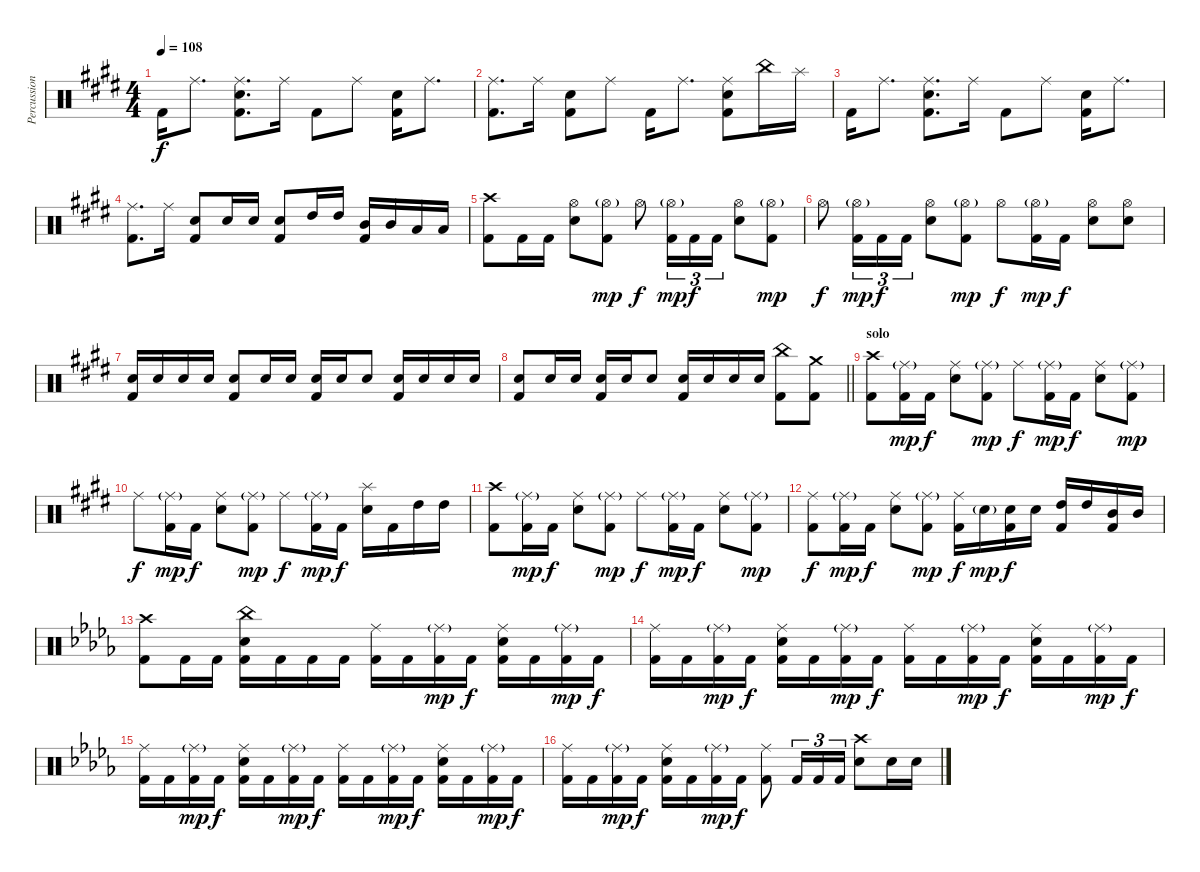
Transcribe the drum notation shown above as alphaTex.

\track ("Percussion" "Percussion") {instrument percussion}
\staff {score}
\articulation defaults
\ts (4 4)
\tempo 108
\clef neutral
\ks e "Kick (hit) 2".16{dy f} "Ride (middle)".8{d}
("Ride (middle)" "Electric Snare (hit)" "Kick (hit) 2").8{d} "Ride (middle)".16 "Kick (hit) 2".8 "Ride (middle)".8 ("Electric Snare (hit)" "Kick (hit) 2").16 "Ride (middle)".8{d} |
("Ride (middle)" "Kick (hit) 2").8{d} "Ride (middle)".16 ("Electric Snare (hit)" "Kick (hit) 2").8 "Ride (middle)".8 "Kick (hit) 2".16 "Ride (middle)".8{d} ("Ride (middle)" "Electric Snare (hit)" "Kick (hit) 2").8 "China (hit)".16 "Splash (hit)".16 |
"Kick (hit) 2".16 "Ride (middle)".8{d} ("Ride (middle)" "Electric Snare (hit)" "Kick (hit) 2").8{d} "Ride (middle)".16 "Kick (hit) 2".8 "Ride (middle)".8 ("Electric Snare (hit)" "Kick (hit) 2").16 "Ride (middle)".8{d} |
("Ride (middle)" "Kick (hit) 2").8{d} "Ride (middle)".16 ("Electric Snare (hit)" "Kick (hit) 2").8 "Electric Snare (hit)".16 "Electric Snare (hit)".16 ("Electric Snare (hit)" "Kick (hit) 2").8 "High Tom (hit)".16 "High Tom (hit)".16 ("Mid Tom (hit)" "Kick (hit) 2").16 "Mid Tom (hit)".16 "Low Tom (hit)".16 "Low Tom (hit)".16 |
("Crash high (hit)" "Kick (hit) 2").8 "Kick (hit) 2".16 "Kick (hit) 2".16 ("Hi-Hat (open)" "Electric Snare (hit)").8 ("Hi-Hat (open)"{g} "Kick (hit) 2").8{dy mp} "Hi-Hat (open)".8{dy f} ("Hi-Hat (open)"{g} "Kick (hit) 2").16{tu (3 2) dy mp} "Kick (hit) 2".16{tu (3 2) dy f} "Kick (hit) 2".16{tu (3 2)} ("Hi-Hat (open)" "Electric Snare (hit)").8 ("Hi-Hat (open)"{g} "Kick (hit) 2").8{dy mp} |
"Hi-Hat (open)".8{dy f} ("Hi-Hat (open)"{g} "Kick (hit) 2").16{tu (3 2) dy mp} "Kick (hit) 2".16{tu (3 2) dy f} "Kick (hit) 2".16{tu (3 2)} ("Hi-Hat (open)" "Electric Snare (hit)").8 ("Hi-Hat (open)"{g} "Kick (hit) 2").8{dy mp} "Hi-Hat (open)".8{dy f} ("Hi-Hat (open)"{g} "Kick (hit) 2").16{dy mp} "Kick (hit) 2".16{dy f} ("Hi-Hat (open)" "Electric Snare (hit)").8 ("Hi-Hat (open)" "Electric Snare (hit)").8 |
("Electric Snare (hit)" "Kick (hit) 2").16 "Electric Snare (hit)".16 "Electric Snare (hit)".16 "Electric Snare (hit)".16 ("Electric Snare (hit)" "Kick (hit) 2").8 "Electric Snare (hit)".16 "Electric Snare (hit)".16 ("Electric Snare (hit)" "Kick (hit) 2").16 "Electric Snare (hit)".16 "Electric Snare (hit)".8 ("Electric Snare (hit)" "Kick (hit) 2").16 "Electric Snare (hit)".16 "Electric Snare (hit)".16 "Electric Snare (hit)".16 |
\barLineRight lightlight
("Electric Snare (hit)" "Kick (hit) 2").8 "Electric Snare (hit)".16 "Electric Snare (hit)".16 ("Electric Snare (hit)" "Kick (hit) 2").16 "Electric Snare (hit)".16 "Electric Snare (hit)".8 ("Electric Snare (hit)" "Kick (hit) 2").16 "Electric Snare (hit)".16 "Electric Snare (hit)".16 "Electric Snare (hit)".16 ("China (hit)" "Kick (hit) 2").8 ("Crash medium (hit)" "Kick (hit) 2").8 |
\section ("" "solo")
("Crash high (hit)" "Kick (hit) 2").8 ("Ride (middle)"{g} "Kick (hit) 2").16{dy mp} "Kick (hit) 2".16{dy f} ("Ride (middle)" "Electric Snare (hit)").8 ("Ride (middle)"{g} "Kick (hit) 2").8{dy mp} "Ride (middle)".8{dy f} ("Ride (middle)"{g} "Kick (hit) 2").16{dy mp} "Kick (hit) 2".16{dy f} ("Ride (middle)" "Electric Snare (hit)").8 ("Ride (middle)"{g} "Kick (hit) 2").8{dy mp} |
"Ride (middle)".8{dy f} ("Ride (middle)"{g} "Kick (hit) 2").16{dy mp} "Kick (hit) 2".16{dy f} ("Ride (middle)" "Electric Snare (hit)").8 ("Ride (middle)"{g} "Kick (hit) 2").8{dy mp} "Ride (middle)".8{dy f} ("Ride (middle)"{g} "Kick (hit) 2").16{dy mp} "Kick (hit) 2".16{dy f} ("Splash (hit)" "Electric Snare (hit)").16 "Kick (hit) 2".16 "High Tom (hit)".16 "High Tom (hit)".16 |
("Crash high (hit)" "Kick (hit) 2").8 ("Ride (middle)"{g} "Kick (hit) 2").16{dy mp} "Kick (hit) 2".16{dy f} ("Ride (middle)" "Electric Snare (hit)").8 ("Ride (middle)"{g} "Kick (hit) 2").8{dy mp} "Ride (middle)".8{dy f} ("Ride (middle)"{g} "Kick (hit) 2").16{dy mp} "Kick (hit) 2".16{dy f} ("Ride (middle)" "Electric Snare (hit)").8 ("Ride (middle)"{g} "Kick (hit) 2").8{dy mp} |
("Ride (middle)" "Kick (hit) 2").8{dy f} ("Ride (middle)"{g} "Kick (hit) 2").16{dy mp} "Kick (hit) 2".16{dy f} ("Ride (middle)" "Electric Snare (hit)").8 ("Ride (middle)"{g} "Kick (hit) 2").8{dy mp} ("Ride (middle)" "Kick (hit) 2").16{dy f} "Electric Snare (hit)"{g}.16{dy mp} ("Electric Snare (hit)" "Kick (hit) 2").16{dy f} "Electric Snare (hit)".16 ("High Tom (hit)" "Kick (hit) 2").16 "High Tom (hit)".16 ("Mid Tom (hit)" "Kick (hit) 2").16 "Mid Tom (hit)".16 |
\ks db
("Crash high (hit)" "Kick (hit) 2").8 "Kick (hit) 2".16 "Kick (hit) 2".16 ("China (hit)" "Electric Snare (hit)" "Kick (hit) 2").16 "Kick (hit) 2".16 "Kick (hit) 2".16 "Kick (hit) 2".16 ("Ride (middle)" "Kick (hit) 2").16 "Kick (hit) 2".16 ("Ride (middle)"{g} "Kick (hit) 2").16{dy mp} "Kick (hit) 2".16{dy f} ("Ride (middle)" "Electric Snare (hit)" "Kick (hit) 2").16 "Kick (hit) 2".16 ("Ride (middle)"{g} "Kick (hit) 2").16{dy mp} "Kick (hit) 2".16{dy f} |
("Ride (middle)" "Kick (hit) 2").16 "Kick (hit) 2".16 ("Ride (middle)"{g} "Kick (hit) 2").16{dy mp} "Kick (hit) 2".16{dy f} ("Ride (middle)" "Electric Snare (hit)" "Kick (hit) 2").16 "Kick (hit) 2".16 ("Ride (middle)"{g} "Kick (hit) 2").16{dy mp} "Kick (hit) 2".16{dy f} ("Ride (middle)" "Kick (hit) 2").16 "Kick (hit) 2".16 ("Ride (middle)"{g} "Kick (hit) 2").16{dy mp} "Kick (hit) 2".16{dy f} ("Ride (middle)" "Electric Snare (hit)" "Kick (hit) 2").16 "Kick (hit) 2".16 ("Ride (middle)"{g} "Kick (hit) 2").16{dy mp} "Kick (hit) 2".16{dy f} |
("Ride (middle)" "Kick (hit) 2").16 "Kick (hit) 2".16 ("Ride (middle)"{g} "Kick (hit) 2").16{dy mp} "Kick (hit) 2".16{dy f} ("Ride (middle)" "Electric Snare (hit)" "Kick (hit) 2").16 "Kick (hit) 2".16 ("Ride (middle)"{g} "Kick (hit) 2").16{dy mp} "Kick (hit) 2".16{dy f} ("Ride (middle)" "Kick (hit) 2").16 "Kick (hit) 2".16 ("Ride (middle)"{g} "Kick (hit) 2").16{dy mp} "Kick (hit) 2".16{dy f} ("Ride (middle)" "Electric Snare (hit)" "Kick (hit) 2").16 "Kick (hit) 2".16 ("Ride (middle)"{g} "Kick (hit) 2").16{dy mp} "Kick (hit) 2".16{dy f} |
("Ride (middle)" "Kick (hit) 2").16 "Kick (hit) 2".16 ("Ride (middle)"{g} "Kick (hit) 2").16{dy mp} "Kick (hit) 2".16{dy f} ("Ride (middle)" "Electric Snare (hit)" "Kick (hit) 2").16 "Kick (hit) 2".16 ("Ride (middle)"{g} "Kick (hit) 2").16{dy mp} "Kick (hit) 2".16{dy f} ("Ride (middle)" "Kick (hit) 2").8 "Kick (hit) 2".16{tu (3 2)} "Kick (hit) 2".16{tu (3 2)} "Kick (hit) 2".16{tu (3 2)} ("Crash high (hit)" "Electric Snare (hit)").8 "Electric Snare (hit)".16 "Electric Snare (hit)".16
